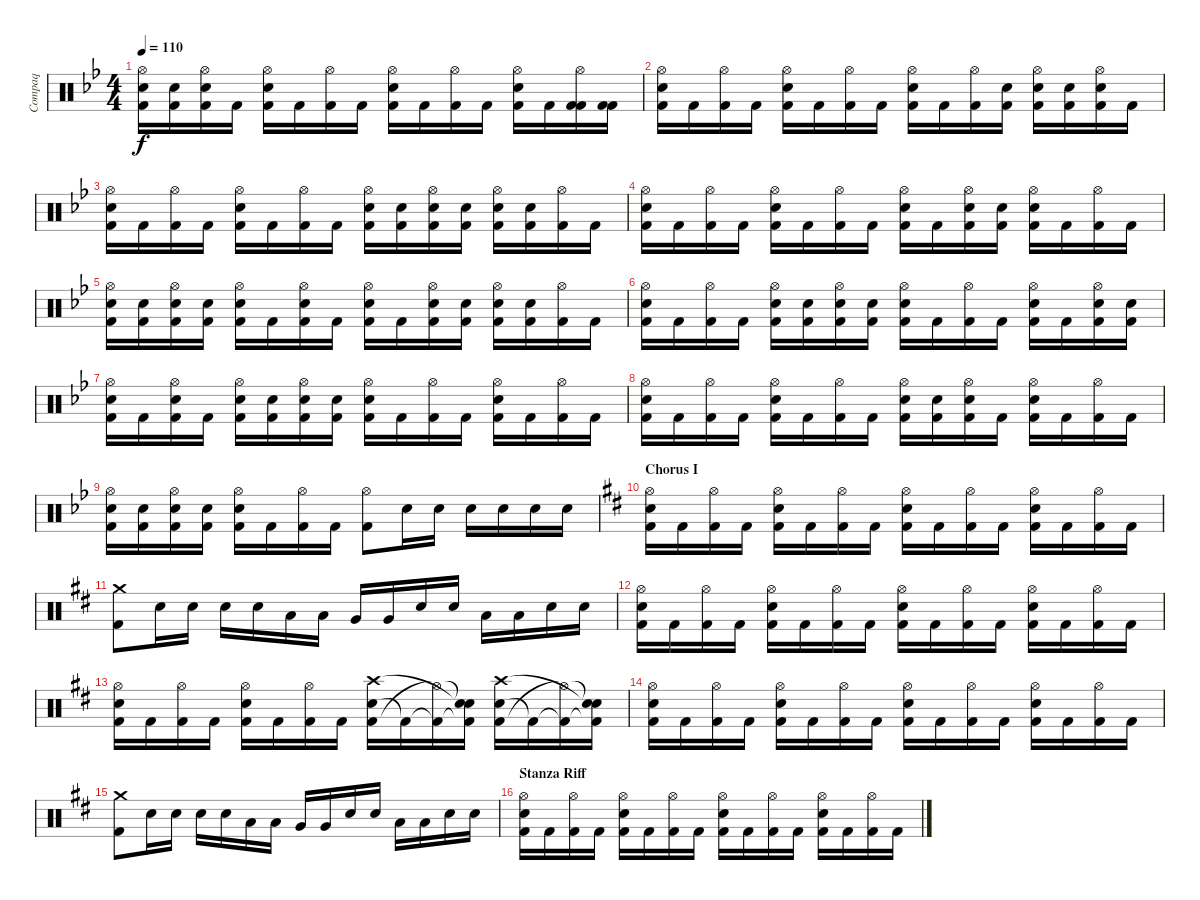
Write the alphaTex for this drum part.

\track ("Compaq" "Compaq") {instrument percussion}
\staff {score}
\articulation defaults
\ts (4 4)
\tempo 110
\clef neutral
\ks bb
("Electric Snare (hit)" "Kick (hit) 2" "Hi-Hat (open)").16{dy f} ("Kick (hit) 2" "Electric Snare (hit)").16 ("Kick (hit) 2" "Hi-Hat (open)" "Electric Snare (hit)").16 "Kick (hit) 2".16 ("Electric Snare (hit)" "Kick (hit) 2" "Hi-Hat (open)").16 "Kick (hit) 2".16 ("Kick (hit) 2" "Hi-Hat (open)").16 "Kick (hit) 2".16 ("Electric Snare (hit)" "Kick (hit) 2" "Hi-Hat (open)").16 "Kick (hit) 2".16 ("Kick (hit) 2" "Hi-Hat (open)").16 "Kick (hit) 2".16 ("Electric Snare (hit)" "Kick (hit) 2" "Hi-Hat (open)").16 "Kick (hit) 2".16 ("Kick (hit) 2" "Hi-Hat (open)" "Kick (hit) 2").16 ("Kick (hit) 2" "Kick (hit) 2").16 |
("Electric Snare (hit)" "Kick (hit) 2" "Hi-Hat (open)").16 "Kick (hit) 2".16 ("Kick (hit) 2" "Hi-Hat (open)").16 "Kick (hit) 2".16 ("Electric Snare (hit)" "Kick (hit) 2" "Hi-Hat (open)").16 "Kick (hit) 2".16 ("Kick (hit) 2" "Hi-Hat (open)").16 "Kick (hit) 2".16 ("Electric Snare (hit)" "Kick (hit) 2" "Hi-Hat (open)").16 "Kick (hit) 2".16 ("Kick (hit) 2" "Hi-Hat (open)").16 ("Kick (hit) 2" "Electric Snare (hit)").16 ("Electric Snare (hit)" "Kick (hit) 2" "Hi-Hat (open)").16 ("Kick (hit) 2" "Electric Snare (hit)").16 ("Kick (hit) 2" "Hi-Hat (open)" "Electric Snare (hit)").16 "Kick (hit) 2".16 |
("Electric Snare (hit)" "Kick (hit) 2" "Hi-Hat (open)").16 "Kick (hit) 2".16 ("Kick (hit) 2" "Hi-Hat (open)").16 "Kick (hit) 2".16 ("Electric Snare (hit)" "Kick (hit) 2" "Hi-Hat (open)").16 "Kick (hit) 2".16 ("Kick (hit) 2" "Hi-Hat (open)").16 "Kick (hit) 2".16 ("Electric Snare (hit)" "Kick (hit) 2" "Hi-Hat (open)").16 ("Kick (hit) 2" "Electric Snare (hit)").16 ("Kick (hit) 2" "Hi-Hat (open)" "Electric Snare (hit)").16 ("Kick (hit) 2" "Electric Snare (hit)").16 ("Electric Snare (hit)" "Kick (hit) 2" "Hi-Hat (open)").16 ("Kick (hit) 2" "Electric Snare (hit)").16 ("Kick (hit) 2" "Hi-Hat (open)").16 "Kick (hit) 2".16 |
("Electric Snare (hit)" "Kick (hit) 2" "Hi-Hat (open)").16 "Kick (hit) 2".16 ("Kick (hit) 2" "Hi-Hat (open)").16 "Kick (hit) 2".16 ("Electric Snare (hit)" "Kick (hit) 2" "Hi-Hat (open)").16 "Kick (hit) 2".16 ("Kick (hit) 2" "Hi-Hat (open)").16 "Kick (hit) 2".16 ("Electric Snare (hit)" "Kick (hit) 2" "Hi-Hat (open)").16 "Kick (hit) 2".16 ("Kick (hit) 2" "Hi-Hat (open)" "Electric Snare (hit)").16 ("Kick (hit) 2" "Electric Snare (hit)").16 ("Electric Snare (hit)" "Kick (hit) 2" "Hi-Hat (open)").16 "Kick (hit) 2".16 ("Kick (hit) 2" "Hi-Hat (open)").16 "Kick (hit) 2".16 |
("Electric Snare (hit)" "Kick (hit) 2" "Hi-Hat (open)").16 ("Kick (hit) 2" "Electric Snare (hit)").16 ("Kick (hit) 2" "Hi-Hat (open)" "Electric Snare (hit)").16 ("Kick (hit) 2" "Electric Snare (hit)").16 ("Electric Snare (hit)" "Kick (hit) 2" "Hi-Hat (open)").16 "Kick (hit) 2".16 ("Kick (hit) 2" "Hi-Hat (open)" "Electric Snare (hit)").16 "Kick (hit) 2".16 ("Electric Snare (hit)" "Kick (hit) 2" "Hi-Hat (open)").16 "Kick (hit) 2".16 ("Kick (hit) 2" "Hi-Hat (open)" "Electric Snare (hit)").16 ("Kick (hit) 2" "Electric Snare (hit)").16 ("Electric Snare (hit)" "Kick (hit) 2" "Hi-Hat (open)").16 ("Kick (hit) 2" "Electric Snare (hit)").16 ("Kick (hit) 2" "Hi-Hat (open)").16 "Kick (hit) 2".16 |
("Electric Snare (hit)" "Kick (hit) 2" "Hi-Hat (open)").16 "Kick (hit) 2".16 ("Kick (hit) 2" "Hi-Hat (open)").16 "Kick (hit) 2".16 ("Electric Snare (hit)" "Kick (hit) 2" "Hi-Hat (open)").16 ("Kick (hit) 2" "Electric Snare (hit)").16 ("Kick (hit) 2" "Hi-Hat (open)" "Electric Snare (hit)").16 ("Kick (hit) 2" "Electric Snare (hit)").16 ("Electric Snare (hit)" "Kick (hit) 2" "Hi-Hat (open)").16 "Kick (hit) 2".16 ("Kick (hit) 2" "Hi-Hat (open)").16 "Kick (hit) 2".16 ("Electric Snare (hit)" "Kick (hit) 2" "Hi-Hat (open)").16 "Kick (hit) 2".16 ("Kick (hit) 2" "Hi-Hat (open)" "Electric Snare (hit)").16 ("Kick (hit) 2" "Electric Snare (hit)").16 |
("Electric Snare (hit)" "Kick (hit) 2" "Hi-Hat (open)").16 "Kick (hit) 2".16 ("Kick (hit) 2" "Hi-Hat (open)" "Electric Snare (hit)").16 "Kick (hit) 2".16 ("Electric Snare (hit)" "Kick (hit) 2" "Hi-Hat (open)").16 ("Kick (hit) 2" "Electric Snare (hit)").16 ("Kick (hit) 2" "Hi-Hat (open)" "Electric Snare (hit)").16 ("Kick (hit) 2" "Electric Snare (hit)").16 ("Electric Snare (hit)" "Kick (hit) 2" "Hi-Hat (open)").16 "Kick (hit) 2".16 ("Kick (hit) 2" "Hi-Hat (open)").16 "Kick (hit) 2".16 ("Electric Snare (hit)" "Kick (hit) 2" "Hi-Hat (open)").16 "Kick (hit) 2".16 ("Kick (hit) 2" "Hi-Hat (open)").16 "Kick (hit) 2".16 |
("Electric Snare (hit)" "Kick (hit) 2" "Hi-Hat (open)").16 "Kick (hit) 2".16 ("Kick (hit) 2" "Hi-Hat (open)").16 "Kick (hit) 2".16 ("Electric Snare (hit)" "Kick (hit) 2" "Hi-Hat (open)").16 "Kick (hit) 2".16 ("Kick (hit) 2" "Hi-Hat (open)").16 "Kick (hit) 2".16 ("Electric Snare (hit)" "Kick (hit) 2" "Hi-Hat (open)").16 ("Kick (hit) 2" "Electric Snare (hit)").16 ("Kick (hit) 2" "Hi-Hat (open)" "Electric Snare (hit)").16 "Kick (hit) 2".16 ("Electric Snare (hit)" "Kick (hit) 2" "Hi-Hat (open)").16 "Kick (hit) 2".16 ("Kick (hit) 2" "Hi-Hat (open)").16 "Kick (hit) 2".16 |
("Electric Snare (hit)" "Kick (hit) 2" "Hi-Hat (open)").16 ("Kick (hit) 2" "Electric Snare (hit)").16 ("Kick (hit) 2" "Hi-Hat (open)" "Electric Snare (hit)").16 ("Kick (hit) 2" "Electric Snare (hit)").16 ("Electric Snare (hit)" "Kick (hit) 2" "Hi-Hat (open)").16 "Kick (hit) 2".16 ("Kick (hit) 2" "Hi-Hat (open)").16 "Kick (hit) 2".16 ("Hi-Hat (open)" "Kick (hit) 2").8 "Electric Snare (hit)".16 "Electric Snare (hit)".16 "Electric Snare (hit)".16 "Electric Snare (hit)".16 "Electric Snare (hit)".16 "Electric Snare (hit)".16 |
\section ("" "Chorus I")
\ks bminor
("Electric Snare (hit)" "Kick (hit) 2" "Hi-Hat (open)").16 "Kick (hit) 2".16 ("Kick (hit) 2" "Hi-Hat (open)").16 "Kick (hit) 2".16 ("Electric Snare (hit)" "Kick (hit) 2" "Hi-Hat (open)").16 "Kick (hit) 2".16 ("Kick (hit) 2" "Hi-Hat (open)").16 "Kick (hit) 2".16 ("Electric Snare (hit)" "Kick (hit) 2" "Hi-Hat (open)").16 "Kick (hit) 2".16 ("Kick (hit) 2" "Hi-Hat (open)").16 "Kick (hit) 2".16 ("Electric Snare (hit)" "Kick (hit) 2" "Hi-Hat (open)").16 "Kick (hit) 2".16 ("Kick (hit) 2" "Hi-Hat (open)").16 "Kick (hit) 2".16 |
("Crash medium (hit)" "Kick (hit) 2").8 "Electric Snare (hit)".16 "Electric Snare (hit)".16 "Electric Snare (hit)".16 "Electric Snare (hit)".16 "Low Tom (hit)".16 "Low Tom (hit)".16 "Very Low Tom (hit)".16 "Very Low Tom (hit)".16 "Electric Snare (hit)".16 "Electric Snare (hit)".16 "Low Floor Tom (hit)".16 "Low Floor Tom (hit)".16 "Electric Snare (hit)".16 "Electric Snare (hit)".16 |
("Electric Snare (hit)" "Kick (hit) 2" "Hi-Hat (open)").16 "Kick (hit) 2".16 ("Kick (hit) 2" "Hi-Hat (open)").16 "Kick (hit) 2".16 ("Electric Snare (hit)" "Kick (hit) 2" "Hi-Hat (open)").16 "Kick (hit) 2".16 ("Kick (hit) 2" "Hi-Hat (open)").16 "Kick (hit) 2".16 ("Electric Snare (hit)" "Kick (hit) 2" "Hi-Hat (open)").16 "Kick (hit) 2".16 ("Kick (hit) 2" "Hi-Hat (open)").16 "Kick (hit) 2".16 ("Electric Snare (hit)" "Kick (hit) 2" "Hi-Hat (open)").16 "Kick (hit) 2".16 ("Kick (hit) 2" "Hi-Hat (open)").16 "Kick (hit) 2".16 |
("Electric Snare (hit)" "Kick (hit) 2" "Hi-Hat (open)").16 "Kick (hit) 2".16 ("Kick (hit) 2" "Hi-Hat (open)").16 "Kick (hit) 2".16 ("Electric Snare (hit)" "Kick (hit) 2" "Hi-Hat (open)").16 "Kick (hit) 2".16 ("Kick (hit) 2" "Hi-Hat (open)").16 "Kick (hit) 2".16 ("Electric Snare (hit)" "Kick (hit) 2" "Crash high (hit)").16 "Kick (hit) 2"{t}.16 ("Kick (hit) 2"{t} "Hi-Hat (open)"{t}).16 ("Kick (hit) 2"{t} "Snare (hit)"{t} "Snare (hit)"{t}).16 ("Electric Snare (hit)" "Kick (hit) 2" "Crash high (hit)").16 "Kick (hit) 2"{t}.16 ("Kick (hit) 2"{t} "Hi-Hat (open)"{t}).16 ("Kick (hit) 2"{t} "Snare (hit)"{t} "Snare (hit)"{t}).16 |
("Electric Snare (hit)" "Kick (hit) 2" "Hi-Hat (open)").16 "Kick (hit) 2".16 ("Kick (hit) 2" "Hi-Hat (open)").16 "Kick (hit) 2".16 ("Electric Snare (hit)" "Kick (hit) 2" "Hi-Hat (open)").16 "Kick (hit) 2".16 ("Kick (hit) 2" "Hi-Hat (open)").16 "Kick (hit) 2".16 ("Electric Snare (hit)" "Kick (hit) 2" "Hi-Hat (open)").16 "Kick (hit) 2".16 ("Kick (hit) 2" "Hi-Hat (open)").16 "Kick (hit) 2".16 ("Electric Snare (hit)" "Kick (hit) 2" "Hi-Hat (open)").16 "Kick (hit) 2".16 ("Kick (hit) 2" "Hi-Hat (open)").16 "Kick (hit) 2".16 |
("Crash medium (hit)" "Kick (hit) 2").8 "Electric Snare (hit)".16 "Electric Snare (hit)".16 "Electric Snare (hit)".16 "Electric Snare (hit)".16 "Low Tom (hit)".16 "Low Tom (hit)".16 "Very Low Tom (hit)".16 "Very Low Tom (hit)".16 "Electric Snare (hit)".16 "Electric Snare (hit)".16 "Low Floor Tom (hit)".16 "Low Floor Tom (hit)".16 "Electric Snare (hit)".16 "Electric Snare (hit)".16 |
\section ("" "Stanza Riff")
("Electric Snare (hit)" "Kick (hit) 2" "Hi-Hat (open)").16 "Kick (hit) 2".16 ("Kick (hit) 2" "Hi-Hat (open)").16 "Kick (hit) 2".16 ("Electric Snare (hit)" "Kick (hit) 2" "Hi-Hat (open)").16 "Kick (hit) 2".16 ("Kick (hit) 2" "Hi-Hat (open)").16 "Kick (hit) 2".16 ("Electric Snare (hit)" "Kick (hit) 2" "Hi-Hat (open)").16 "Kick (hit) 2".16 ("Kick (hit) 2" "Hi-Hat (open)").16 "Kick (hit) 2".16 ("Electric Snare (hit)" "Kick (hit) 2" "Hi-Hat (open)").16 "Kick (hit) 2".16 ("Kick (hit) 2" "Hi-Hat (open)").16 "Kick (hit) 2".16
